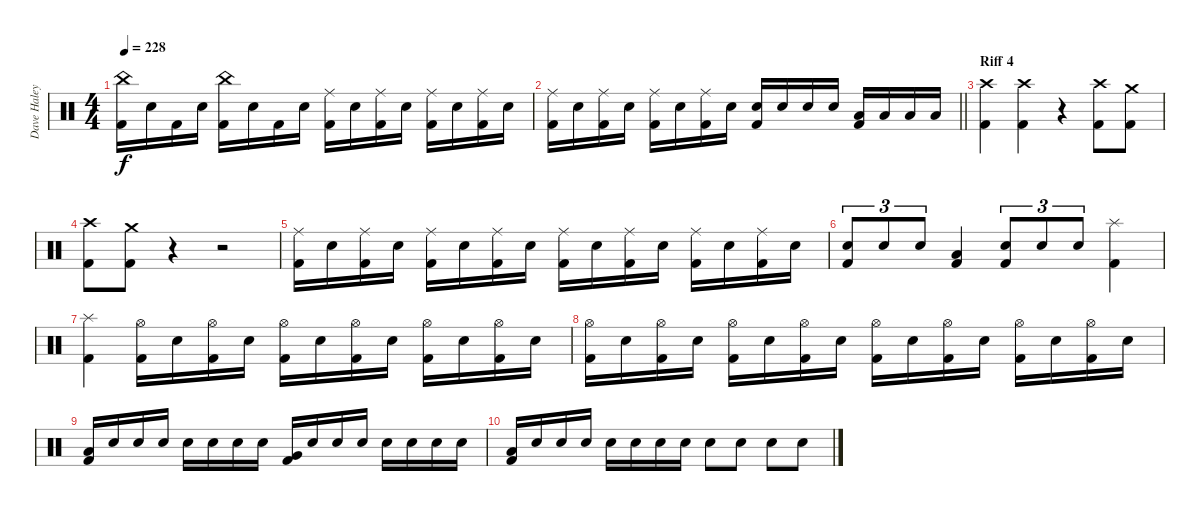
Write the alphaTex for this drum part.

\track ("Dave Haley" "Dave Haley") {instrument percussion}
\staff {score}
\articulation defaults
\ts (4 4)
\tempo 228
\clef neutral
\ks c
("China (hit)" "Kick (hit) 2").16{dy f} "Snare (hit) 2".16 "Kick (hit) 2".16 "Snare (hit) 2".16 ("China (hit)" "Kick (hit) 2").16 "Snare (hit) 2".16 "Kick (hit) 2".16 "Snare (hit) 2".16 ("Ride (middle)" "Kick (hit) 2").16 "Snare (hit) 2".16 ("Ride (middle)" "Kick (hit) 2").16 "Snare (hit) 2".16 ("Ride (middle)" "Kick (hit) 2").16 "Snare (hit) 2".16 ("Ride (middle)" "Kick (hit) 2").16 "Snare (hit) 2".16 |
\barLineRight lightlight
("Ride (middle)" "Kick (hit) 2").16 "Snare (hit) 2".16 ("Ride (middle)" "Kick (hit) 2").16 "Snare (hit) 2".16 ("Ride (middle)" "Kick (hit) 2").16 "Snare (hit) 2".16 ("Ride (middle)" "Kick (hit) 2").16 "Snare (hit) 2".16 ("Snare (hit) 2" "Kick (hit) 2").16 "Snare (hit) 2".16 "Snare (hit) 2".16 "Snare (hit) 2".16 ("Low Tom (hit)" "Kick (hit) 2").16 "Low Tom (hit)".16 "Low Tom (hit)".16 "Low Tom (hit)".16 |
\section ("" "Riff 4")
("Crash high (hit)" "Kick (hit) 2").4 ("Crash high (hit)" "Kick (hit) 2").4 r.4 ("Crash high (hit)" "Kick (hit) 2").8 ("Crash medium (hit)" "Kick (hit) 2").8 |
("Crash high (hit)" "Kick (hit) 2").8 ("Crash medium (hit)" "Kick (hit) 2").8 r.4 r.2 |
("Ride (middle)" "Kick (hit) 2").16 "Snare (hit) 2".16 ("Ride (middle)" "Kick (hit) 2").16 "Snare (hit) 2".16 ("Ride (middle)" "Kick (hit) 2").16 "Snare (hit) 2".16 ("Ride (middle)" "Kick (hit) 2").16 "Snare (hit) 2".16 ("Ride (middle)" "Kick (hit) 2").16 "Snare (hit) 2".16 ("Ride (middle)" "Kick (hit) 2").16 "Snare (hit) 2".16 ("Ride (middle)" "Kick (hit) 2").16 "Snare (hit) 2".16 ("Ride (middle)" "Kick (hit) 2").16 "Snare (hit) 2".16 |
("Snare (hit) 2" "Kick (hit) 2").8{tu (3 2)} "Snare (hit) 2".8{tu (3 2)} "Snare (hit) 2".8{tu (3 2)} ("Low Tom (hit)" "Kick (hit) 2").4 ("Snare (hit) 2" "Kick (hit) 2").8{tu (3 2)} "Snare (hit) 2".8{tu (3 2)} "Snare (hit) 2".8{tu (3 2)} ("Splash (hit)" "Kick (hit) 2").4 |
("Splash (hit)" "Kick (hit) 2").4 ("Hi-Hat (open)" "Kick (hit) 2").16 "Snare (hit) 2".16 ("Hi-Hat (open)" "Kick (hit) 2").16 "Snare (hit) 2".16 ("Hi-Hat (open)" "Kick (hit) 2").16 "Snare (hit) 2".16 ("Hi-Hat (open)" "Kick (hit) 2").16 "Snare (hit) 2".16 ("Hi-Hat (open)" "Kick (hit) 2").16 "Snare (hit) 2".16 ("Hi-Hat (open)" "Kick (hit) 2").16 "Snare (hit) 2".16 |
("Hi-Hat (open)" "Kick (hit) 2").16 "Snare (hit) 2".16 ("Hi-Hat (open)" "Kick (hit) 2").16 "Snare (hit) 2".16 ("Hi-Hat (open)" "Kick (hit) 2").16 "Snare (hit) 2".16 ("Hi-Hat (open)" "Kick (hit) 2").16 "Snare (hit) 2".16 ("Hi-Hat (open)" "Kick (hit) 2").16 "Snare (hit) 2".16 ("Hi-Hat (open)" "Kick (hit) 2").16 "Snare (hit) 2".16 ("Hi-Hat (open)" "Kick (hit) 2").16 "Snare (hit) 2".16 ("Hi-Hat (open)" "Kick (hit) 2").16 "Snare (hit) 2".16 |
("Low Tom (hit)" "Kick (hit) 2").16 "Snare (hit) 2".16 "Snare (hit) 2".16 "Snare (hit) 2".16 "Snare (hit) 2".16 "Snare (hit) 2".16 "Snare (hit) 2".16 "Snare (hit) 2".16 ("Very Low Tom (hit)" "Kick (hit) 2").16 "Snare (hit) 2".16 "Snare (hit) 2".16 "Snare (hit) 2".16 "Snare (hit) 2".16 "Snare (hit) 2".16 "Snare (hit) 2".16 "Snare (hit) 2".16 |
("Low Floor Tom (hit)" "Kick (hit) 2").16 "Snare (hit) 2".16 "Snare (hit) 2".16 "Snare (hit) 2".16 "Snare (hit) 2".16 "Snare (hit) 2".16 "Snare (hit) 2".16 "Snare (hit) 2".16 "Snare (hit) 2".8 "Snare (hit) 2".8 "Snare (hit) 2".8 "Snare (hit) 2".8
